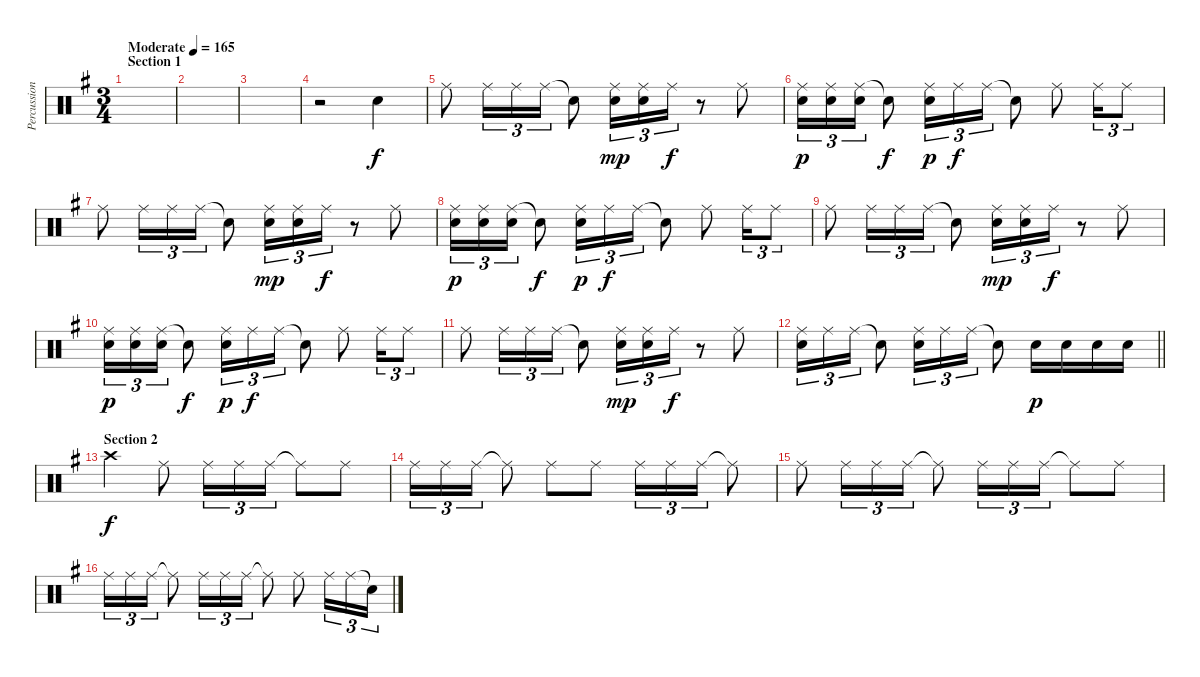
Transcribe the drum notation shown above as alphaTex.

\track ("Percussion" "Percussion") {instrument percussion}
\staff {score}
\articulation defaults
\ts (3 4)
\section ("" "Section 1")
\tempo (165 "Moderate")
\clef neutral
\ks g
|
|
|
r.2 "Snare (hit) 2".4 |
"Ride (middle)".8 "Ride (middle)".16{tu (3 2)} "Ride (middle)".16{tu (3 2)} "Ride (middle)".16{tu (3 2)} "Snare (hit)"{t}.8 ("Ride (middle)" "Snare (hit) 2").16{tu (3 2) dy mp} ("Ride (middle)" "Snare (hit) 2").16{tu (3 2)} "Ride (middle)".16{tu (3 2) dy f} r.8 "Ride (middle)".8 |
("Ride (middle)" "Snare (hit) 2").16{tu (3 2) dy p} ("Ride (middle)" "Snare (hit) 2").16{tu (3 2)} ("Ride (middle)" "Snare (hit) 2").16{tu (3 2)} "Snare (hit)"{t}.8{dy f} ("Ride (middle)" "Snare (hit) 2").16{tu (3 2) dy p} "Ride (middle)".16{tu (3 2) dy f} "Ride (middle)".16{tu (3 2)} "Snare (hit)"{t}.8 "Ride (middle)".8 "Ride (middle)".16{tu (3 2)} "Ride (middle)".8{tu (3 2)} |
"Ride (middle)".8 "Ride (middle)".16{tu (3 2)} "Ride (middle)".16{tu (3 2)} "Ride (middle)".16{tu (3 2)} "Snare (hit)"{t}.8 ("Ride (middle)" "Snare (hit) 2").16{tu (3 2) dy mp} ("Ride (middle)" "Snare (hit) 2").16{tu (3 2)} "Ride (middle)".16{tu (3 2) dy f} r.8 "Ride (middle)".8 |
("Ride (middle)" "Snare (hit) 2").16{tu (3 2) dy p} ("Ride (middle)" "Snare (hit) 2").16{tu (3 2)} ("Ride (middle)" "Snare (hit) 2").16{tu (3 2)} "Snare (hit)"{t}.8{dy f} ("Ride (middle)" "Snare (hit) 2").16{tu (3 2) dy p} "Ride (middle)".16{tu (3 2) dy f} "Ride (middle)".16{tu (3 2)} "Snare (hit)"{t}.8 "Ride (middle)".8 "Ride (middle)".16{tu (3 2)} "Ride (middle)".8{tu (3 2)} |
"Ride (middle)".8 "Ride (middle)".16{tu (3 2)} "Ride (middle)".16{tu (3 2)} "Ride (middle)".16{tu (3 2)} "Snare (hit)"{t}.8 ("Ride (middle)" "Snare (hit) 2").16{tu (3 2) dy mp} ("Ride (middle)" "Snare (hit) 2").16{tu (3 2)} "Ride (middle)".16{tu (3 2) dy f} r.8 "Ride (middle)".8 |
("Ride (middle)" "Snare (hit) 2").16{tu (3 2) dy p} ("Ride (middle)" "Snare (hit) 2").16{tu (3 2)} ("Ride (middle)" "Snare (hit) 2").16{tu (3 2)} "Snare (hit)"{t}.8{dy f} ("Ride (middle)" "Snare (hit) 2").16{tu (3 2) dy p} "Ride (middle)".16{tu (3 2) dy f} "Ride (middle)".16{tu (3 2)} "Snare (hit)"{t}.8 "Ride (middle)".8 "Ride (middle)".16{tu (3 2)} "Ride (middle)".8{tu (3 2)} |
"Ride (middle)".8 "Ride (middle)".16{tu (3 2)} "Ride (middle)".16{tu (3 2)} "Ride (middle)".16{tu (3 2)} "Snare (hit)"{t}.8 ("Ride (middle)" "Snare (hit) 2").16{tu (3 2) dy mp} ("Ride (middle)" "Snare (hit) 2").16{tu (3 2)} "Ride (middle)".16{tu (3 2) dy f} r.8 "Ride (middle)".8 |
\barLineRight lightlight
("Ride (middle)" "Snare (hit) 2").16{tu (3 2)} "Ride (middle)".16{tu (3 2)} "Ride (middle)".16{tu (3 2)} "Snare (hit)"{t}.8 ("Ride (middle)" "Snare (hit) 2").16{tu (3 2)} "Ride (middle)".16{tu (3 2)} "Ride (middle)".16{tu (3 2)} "Snare (hit)"{t}.8 "Snare (hit) 2".16{dy p} "Snare (hit) 2".16 "Snare (hit) 2".16 "Snare (hit) 2".16 |
\section ("" "Section 2")
"Crash high (hit)".4{dy f} "Ride (middle)".8 "Ride (middle)".16{tu (3 2)} "Ride (middle)".16{tu (3 2)} "Ride (middle)".16{tu (3 2)} "Ride (middle)"{t}.8 "Ride (middle)".8 |
"Ride (middle)".16{tu (3 2)} "Ride (middle)".16{tu (3 2)} "Ride (middle)".16{tu (3 2)} "Ride (middle)"{t}.8 "Ride (middle)".8 "Ride (middle)".8 "Ride (middle)".16{tu (3 2)} "Ride (middle)".16{tu (3 2)} "Ride (middle)".16{tu (3 2)} "Ride (middle)"{t}.8 |
"Ride (middle)".8 "Ride (middle)".16{tu (3 2)} "Ride (middle)".16{tu (3 2)} "Ride (middle)".16{tu (3 2)} "Ride (middle)"{t}.8 "Ride (middle)".16{tu (3 2)} "Ride (middle)".16{tu (3 2)} "Ride (middle)".16{tu (3 2)} "Ride (middle)"{t}.8 "Ride (middle)".8 |
"Ride (middle)".16{tu (3 2)} "Ride (middle)".16{tu (3 2)} "Ride (middle)".16{tu (3 2)} "Ride (middle)"{t}.8 "Ride (middle)".16{tu (3 2)} "Ride (middle)".16{tu (3 2)} "Ride (middle)".16{tu (3 2)} "Ride (middle)"{t}.8 "Ride (middle)".8 "Ride (middle)".16{tu (3 2)} "Ride (middle)".16{tu (3 2)} "Snare (hit)"{t}.16{tu (3 2)}
